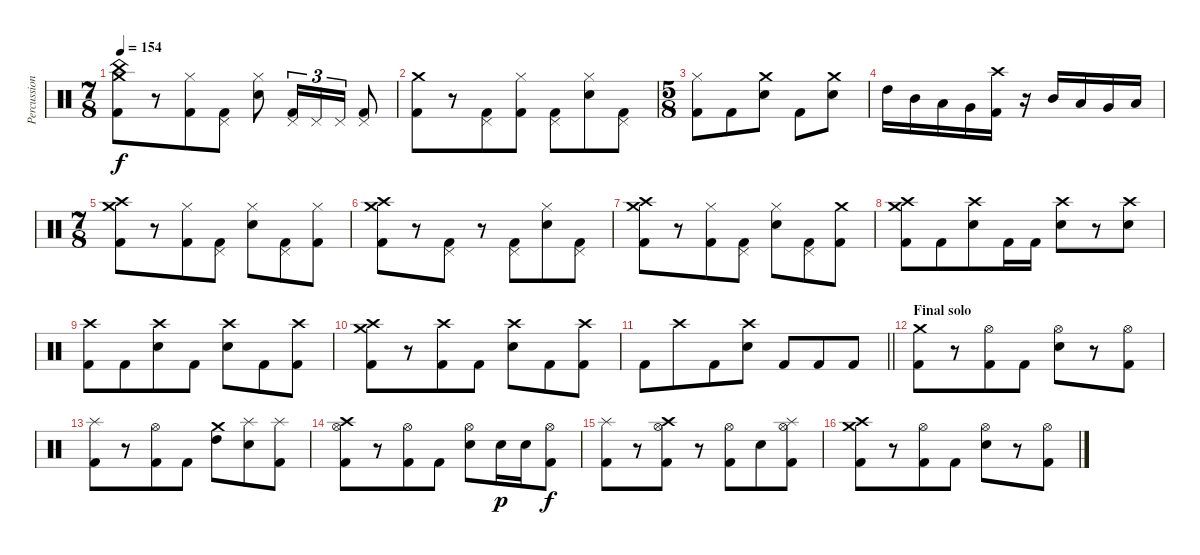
\track ("Percussions" "Percussion") {instrument percussion}
\staff {score}
\articulation defaults
\ts (7 8)
\tempo 154
\clef neutral
\ks c
("China (hit)" "Crash medium (hit)" "Kick (hit) 2").8{dy f} r.8 ("Hi-Hat (closed)" "Kick (hit) 2").8 ("Pedal Hi-Hat (hit)" "Kick (hit) 2").8 ("Hi-Hat (closed)" "Electric Snare (hit)").8 ("Pedal Hi-Hat (hit)" "Kick (hit) 2").16{tu (3 2)} "Pedal Hi-Hat (hit)".16{tu (3 2)} "Pedal Hi-Hat (hit)".16{tu (3 2)} ("Pedal Hi-Hat (hit)" "Kick (hit) 2").8 |
("Crash medium (hit)" "Kick (hit) 2").8 r.8 ("Pedal Hi-Hat (hit)" "Kick (hit) 2").8 ("Hi-Hat (closed)" "Kick (hit) 2").8 ("Pedal Hi-Hat (hit)" "Kick (hit) 2").8 ("Hi-Hat (closed)" "Electric Snare (hit)").8 ("Pedal Hi-Hat (hit)" "Kick (hit) 2").8 |
\ts (5 8)
("Hi-Hat (closed)" "Kick (hit) 2").8 "Kick (hit) 2".8 ("Crash medium (hit)" "Electric Snare (hit)").8 "Kick (hit) 2".8 ("Crash medium (hit)" "Electric Snare (hit)").8 |
"High Tom (hit)".16 "Mid Tom (hit)".16 "Low Tom (hit)".16 "Very Low Tom (hit)".16 ("Crash high (hit)" "Kick (hit) 2").16 r.16 "Mid Tom (hit)".16 "Low Tom (hit)".16 "Very Low Tom (hit)".16 "Low Floor Tom (hit)".16 |
\ts (7 8)
("Crash high (hit)" "Crash medium (hit)" "Kick (hit) 2").8 r.8 ("Hi-Hat (closed)" "Kick (hit) 2").8 ("Pedal Hi-Hat (hit)" "Kick (hit) 2").8 ("Hi-Hat (closed)" "Electric Snare (hit)").8 ("Pedal Hi-Hat (hit)" "Kick (hit) 2").8 ("Hi-Hat (closed)" "Kick (hit) 2").8 |
("Crash high (hit)" "Crash medium (hit)" "Kick (hit) 2").8 r.8 ("Pedal Hi-Hat (hit)" "Kick (hit) 2").8 r.8 ("Pedal Hi-Hat (hit)" "Kick (hit) 2").8 ("Hi-Hat (closed)" "Electric Snare (hit)").8 ("Pedal Hi-Hat (hit)" "Kick (hit) 2").8 |
("Crash high (hit)" "Crash medium (hit)" "Kick (hit) 2").8 r.8 ("Hi-Hat (closed)" "Kick (hit) 2").8 ("Pedal Hi-Hat (hit)" "Kick (hit) 2").8 ("Hi-Hat (closed)" "Electric Snare (hit)").8 ("Pedal Hi-Hat (hit)" "Kick (hit) 2").8 ("Crash medium (hit)" "Kick (hit) 2").8 |
("Crash high (hit)" "Crash medium (hit)" "Kick (hit) 2").8 "Kick (hit) 2".8 ("Crash high (hit)" "Electric Snare (hit)").8 "Kick (hit) 2".16 "Kick (hit) 2".16 ("Crash high (hit)" "Electric Snare (hit)").8 r.8 ("Crash high (hit)" "Electric Snare (hit)").8 |
("Crash high (hit)" "Kick (hit) 2").8 "Kick (hit) 2".8 ("Crash high (hit)" "Electric Snare (hit)").8 "Kick (hit) 2".8 ("Crash high (hit)" "Electric Snare (hit)").8 "Kick (hit) 2".8 ("Crash high (hit)" "Kick (hit) 2").8 |
("Crash medium (hit)" "Crash high (hit)" "Kick (hit) 2").8 r.8 ("Crash high (hit)" "Kick (hit) 2").8 "Kick (hit) 2".8 ("Crash high (hit)" "Electric Snare (hit)").8 "Kick (hit) 2".8 ("Crash high (hit)" "Kick (hit) 2").8 |
\barLineRight lightlight "Kick (hit) 2".8 "Crash high (hit)".8 "Kick (hit) 2".8
("Crash high (hit)" "Electric Snare (hit)").8 "Kick (hit) 2".8 "Kick (hit) 2".8 "Kick (hit) 2".8 |
\section ("" "Final solo")
("Crash medium (hit)" "Kick (hit) 2").8 r.8 ("Hi-Hat (open)" "Kick (hit) 2").8 "Kick (hit) 2".8 ("Hi-Hat (open)" "Electric Snare (hit)").8 r.8 ("Hi-Hat (open)" "Kick (hit) 2").8 |
("Splash (hit)" "Kick (hit) 2").8 r.8 ("Hi-Hat (open)" "Kick (hit) 2").8 "Kick (hit) 2".8 ("Crash medium (hit)" "High Tom (hit)").8 ("Splash (hit)" "Electric Snare (hit)").8 ("Splash (hit)" "Kick (hit) 2").8 |
("Crash high (hit)" "Hi-Hat (open)" "Kick (hit) 2").8 r.8 ("Hi-Hat (open)" "Kick (hit) 2").8 "Kick (hit) 2".8 ("Hi-Hat (open)" "Electric Snare (hit)").8 "Electric Snare (hit)".16{dy p} "Electric Snare (hit)".16 ("Hi-Hat (open)" "Kick (hit) 2").8{dy f} |
("Splash (hit)" "Kick (hit) 2").8 r.8 ("Crash high (hit)" "Hi-Hat (open)" "Kick (hit) 2").8 r.8 ("Hi-Hat (open)" "Kick (hit) 2").8 "Electric Snare (hit)".8 ("Splash (hit)" "Hi-Hat (open)" "Kick (hit) 2").8 |
("Crash medium (hit)" "Crash high (hit)" "Kick (hit) 2").8 r.8 ("Hi-Hat (open)" "Kick (hit) 2").8 "Kick (hit) 2".8 ("Hi-Hat (open)" "Electric Snare (hit)").8 r.8 ("Hi-Hat (open)" "Kick (hit) 2").8
